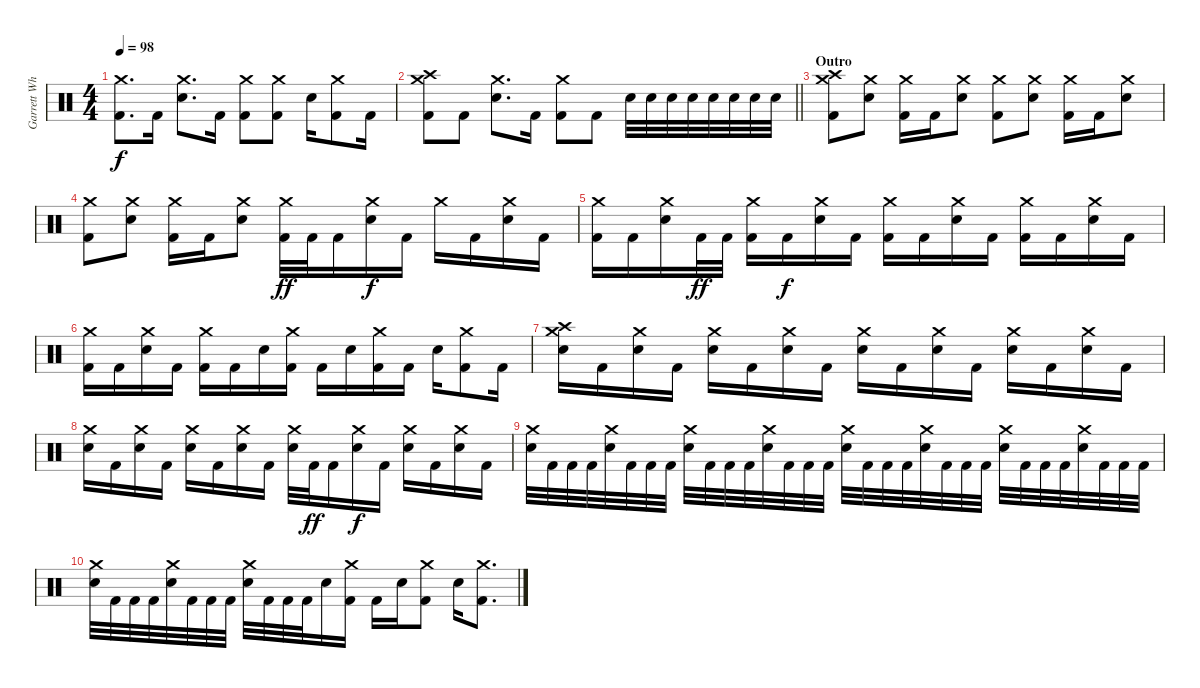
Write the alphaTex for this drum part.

\track ("Garrett Whitlock" "Garrett Wh") {instrument percussion}
\staff {score}
\articulation defaults
\ts (4 4)
\tempo 98
\clef neutral
\ks c
("Crash medium (hit)" "Kick (hit) 2").8{d dy f} "Kick (hit) 2".16 ("Crash medium (hit)" "Electric Snare (hit)").8{d} "Kick (hit) 2".16 ("Crash medium (hit)" "Kick (hit) 2").8 ("Crash medium (hit)" "Kick (hit) 2").8 "Electric Snare (hit)".16 ("Crash medium (hit)" "Kick (hit) 2").8 "Kick (hit) 2".16 |
\barLineRight lightlight
("Crash high (hit)" "Crash medium (hit)" "Kick (hit) 2").8 "Kick (hit) 2".8 ("Crash medium (hit)" "Electric Snare (hit)").8{d} "Kick (hit) 2".16 ("Crash medium (hit)" "Kick (hit) 2").8 "Kick (hit) 2".8 "Electric Snare (hit)".32 "Electric Snare (hit)".32 "Electric Snare (hit)".32 "Electric Snare (hit)".32 "Electric Snare (hit)".32 "Electric Snare (hit)".32 "Electric Snare (hit)".32 "Electric Snare (hit)".32 |
\section ("" "Outro")
("Crash high (hit)" "Crash medium (hit)" "Kick (hit) 2").8 ("Crash medium (hit)" "Electric Snare (hit)").8 ("Crash medium (hit)" "Kick (hit) 2").16 "Kick (hit) 2".16 ("Crash medium (hit)" "Electric Snare (hit)").8 ("Crash medium (hit)" "Kick (hit) 2").8 ("Crash medium (hit)" "Electric Snare (hit)").8 ("Crash medium (hit)" "Kick (hit) 2").16 "Kick (hit) 2".16 ("Crash medium (hit)" "Electric Snare (hit)").8 |
("Crash medium (hit)" "Kick (hit) 2").8 ("Crash medium (hit)" "Electric Snare (hit)").8 ("Crash medium (hit)" "Kick (hit) 2").16 "Kick (hit) 2".16 ("Crash medium (hit)" "Electric Snare (hit)").8 ("Crash medium (hit)" "Kick (hit) 2").32{dy ff} "Kick (hit) 2".32 "Kick (hit) 2".16 ("Crash medium (hit)" "Electric Snare (hit)").16{dy f} "Kick (hit) 2".16 "Crash medium (hit)".16 "Kick (hit) 2".16 ("Crash medium (hit)" "Electric Snare (hit)").16 "Kick (hit) 2".16 |
("Crash medium (hit)" "Kick (hit) 2").16 "Kick (hit) 2".16 ("Crash medium (hit)" "Electric Snare (hit)").16 "Kick (hit) 2".32{dy ff} "Kick (hit) 2".32 ("Crash medium (hit)" "Kick (hit) 2").16 "Kick (hit) 2".16{dy f} ("Crash medium (hit)" "Electric Snare (hit)").16 "Kick (hit) 2".16 ("Crash medium (hit)" "Kick (hit) 2").16 "Kick (hit) 2".16 ("Crash medium (hit)" "Electric Snare (hit)").16 "Kick (hit) 2".16 ("Crash medium (hit)" "Kick (hit) 2").16 "Kick (hit) 2".16 ("Crash medium (hit)" "Electric Snare (hit)").16 "Kick (hit) 2".16 |
("Crash medium (hit)" "Kick (hit) 2").16 "Kick (hit) 2".16 ("Crash medium (hit)" "Electric Snare (hit)").16 "Kick (hit) 2".16 ("Crash medium (hit)" "Kick (hit) 2").16 "Kick (hit) 2".16 "Electric Snare (hit)".16 ("Crash medium (hit)" "Kick (hit) 2").16 "Kick (hit) 2".16 "Electric Snare (hit)".16 ("Crash medium (hit)" "Kick (hit) 2").16 "Kick (hit) 2".16 "Electric Snare (hit)".16 ("Crash medium (hit)" "Kick (hit) 2").8 "Kick (hit) 2".16 |
("Crash high (hit)" "Crash medium (hit)" "Electric Snare (hit)").16 "Kick (hit) 2".16 ("Crash medium (hit)" "Electric Snare (hit)").16 "Kick (hit) 2".16 ("Crash medium (hit)" "Electric Snare (hit)").16 "Kick (hit) 2".16 ("Crash medium (hit)" "Electric Snare (hit)").16 "Kick (hit) 2".16 ("Crash medium (hit)" "Electric Snare (hit)").16 "Kick (hit) 2".16 ("Crash medium (hit)" "Electric Snare (hit)").16 "Kick (hit) 2".16 ("Crash medium (hit)" "Electric Snare (hit)").16 "Kick (hit) 2".16 ("Crash medium (hit)" "Electric Snare (hit)").16 "Kick (hit) 2".16 |
("Crash medium (hit)" "Electric Snare (hit)").16 "Kick (hit) 2".16 ("Crash medium (hit)" "Electric Snare (hit)").16 "Kick (hit) 2".16 ("Crash medium (hit)" "Electric Snare (hit)").16 "Kick (hit) 2".16 ("Crash medium (hit)" "Electric Snare (hit)").16 "Kick (hit) 2".16 ("Crash medium (hit)" "Electric Snare (hit)").32 "Kick (hit) 2".32{dy ff} "Kick (hit) 2".16 ("Crash medium (hit)" "Electric Snare (hit)").16{dy f} "Kick (hit) 2".16 ("Crash medium (hit)" "Electric Snare (hit)").16 "Kick (hit) 2".16 ("Crash medium (hit)" "Electric Snare (hit)").16 "Kick (hit) 2".16 |
("Crash medium (hit)" "Electric Snare (hit)").32 "Kick (hit) 2".32 "Kick (hit) 2".32 "Kick (hit) 2".32 ("Crash medium (hit)" "Electric Snare (hit)").32 "Kick (hit) 2".32 "Kick (hit) 2".32 "Kick (hit) 2".32 ("Crash medium (hit)" "Electric Snare (hit)").32 "Kick (hit) 2".32 "Kick (hit) 2".32 "Kick (hit) 2".32 ("Crash medium (hit)" "Electric Snare (hit)").32 "Kick (hit) 2".32 "Kick (hit) 2".32 "Kick (hit) 2".32 ("Crash medium (hit)" "Electric Snare (hit)").32 "Kick (hit) 2".32 "Kick (hit) 2".32 "Kick (hit) 2".32 ("Crash medium (hit)" "Electric Snare (hit)").32 "Kick (hit) 2".32 "Kick (hit) 2".32 "Kick (hit) 2".32 ("Crash medium (hit)" "Electric Snare (hit)").32 "Kick (hit) 2".32 "Kick (hit) 2".32 "Kick (hit) 2".32 ("Crash medium (hit)" "Electric Snare (hit)").32 "Kick (hit) 2".32 "Kick (hit) 2".32 "Kick (hit) 2".32 |
("Crash medium (hit)" "Electric Snare (hit)").32 "Kick (hit) 2".32 "Kick (hit) 2".32 "Kick (hit) 2".32 ("Crash medium (hit)" "Electric Snare (hit)").32 "Kick (hit) 2".32 "Kick (hit) 2".32 "Kick (hit) 2".32 ("Crash medium (hit)" "Electric Snare (hit)").32 "Kick (hit) 2".32 "Kick (hit) 2".32 "Kick (hit) 2".32 "Electric Snare (hit)".16 ("Crash medium (hit)" "Kick (hit) 2").16 "Kick (hit) 2".16 "Electric Snare (hit)".16 ("Crash medium (hit)" "Kick (hit) 2").8 "Electric Snare (hit)".16 ("Crash medium (hit)" "Kick (hit) 2").8{d}
